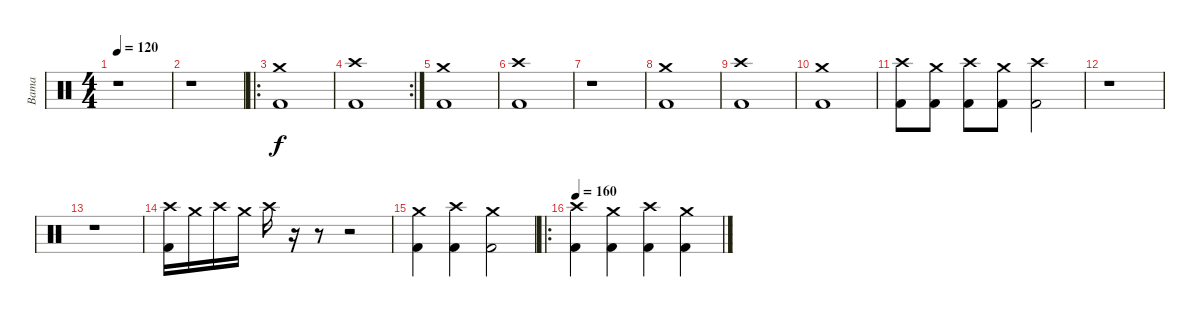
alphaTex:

\track ("Bama" "Bama") {instrument percussion}
\staff {score}
\articulation defaults
\ts (4 4)
\tempo 120
\clef neutral
\ks c
r.1{dy f} |
r.1 |
\ro
("Crash medium (hit)" "Kick (hit) 2").1 |
\rc 2
("Crash high (hit)" "Kick (hit) 2").1 |
("Crash medium (hit)" "Kick (hit) 2").1 |
("Crash high (hit)" "Kick (hit) 2").1 |
r.1 |
("Crash medium (hit)" "Kick (hit) 2").1 |
("Crash high (hit)" "Kick (hit) 2").1 |
("Crash medium (hit)" "Kick (hit) 2").1 |
("Crash high (hit)" "Kick (hit) 2").8 ("Crash medium (hit)" "Kick (hit) 2").8 ("Crash high (hit)" "Kick (hit) 2").8 ("Crash medium (hit)" "Kick (hit) 2").8 ("Crash high (hit)" "Kick (hit) 2").2 |
r.1 |
r.1 |
("Crash high (hit)" "Kick (hit) 2").16 "Crash medium (hit)".16 "Crash high (hit)".16 "Crash medium (hit)".16 "Crash high (hit)".16 r.16 r.8 r.2 |
("Crash medium (hit)" "Kick (hit) 2").4 ("Crash high (hit)" "Kick (hit) 2").4 ("Crash medium (hit)" "Kick (hit) 2").2 |
\ro
\tempo 160
("Crash high (hit)" "Kick (hit) 2").4 ("Crash medium (hit)" "Kick (hit) 2").4 ("Crash high (hit)" "Kick (hit) 2").4 ("Crash medium (hit)" "Kick (hit) 2").4
